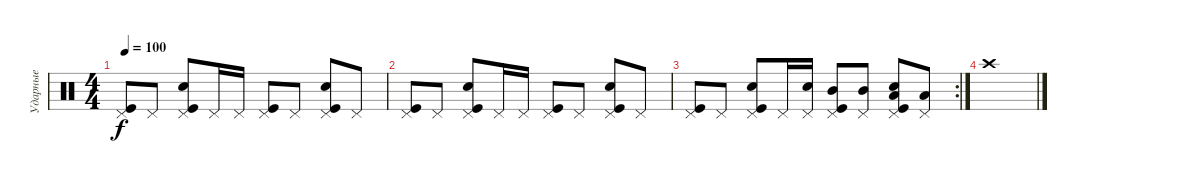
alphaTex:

\track ("Ударные" "Ударные") {instrument percussion}
\staff {score}
\articulation defaults
\ts (4 4)
\tempo 100
\clef neutral
\ks c
("Kick (hit)" "Pedal Hi-Hat (hit)").8{dy f} "Pedal Hi-Hat (hit)".8 ("Kick (hit)" "Snare (hit) 2" "Pedal Hi-Hat (hit)").8 "Pedal Hi-Hat (hit)".16 "Pedal Hi-Hat (hit)".16 ("Kick (hit)" "Pedal Hi-Hat (hit)").8 "Pedal Hi-Hat (hit)".8 ("Snare (hit) 2" "Kick (hit)" "Pedal Hi-Hat (hit)").8 "Pedal Hi-Hat (hit)".8 |
("Kick (hit)" "Pedal Hi-Hat (hit)").8 "Pedal Hi-Hat (hit)".8 ("Kick (hit)" "Snare (hit) 2" "Pedal Hi-Hat (hit)").8 "Pedal Hi-Hat (hit)".16 "Pedal Hi-Hat (hit)".16 ("Kick (hit)" "Pedal Hi-Hat (hit)").8 "Pedal Hi-Hat (hit)".8 ("Kick (hit)" "Snare (hit) 2" "Pedal Hi-Hat (hit)").8 "Pedal Hi-Hat (hit)".8 |
\rc 2
("Kick (hit)" "Pedal Hi-Hat (hit)").8 "Pedal Hi-Hat (hit)".8 ("Kick (hit)" "Snare (hit) 2" "Pedal Hi-Hat (hit)").8 "Pedal Hi-Hat (hit)".16 ("Snare (hit) 2" "Pedal Hi-Hat (hit)").16 ("Kick (hit)" "Mid Tom (hit)" "Pedal Hi-Hat (hit)").8 ("Mid Tom (hit)" "Pedal Hi-Hat (hit)").8 ("Kick (hit)" "Snare (hit) 2" "Low Tom (hit)" "Pedal Hi-Hat (hit)").8 ("Low Tom (hit)" "Pedal Hi-Hat (hit)").8 |
"Crash high (hit)".1
